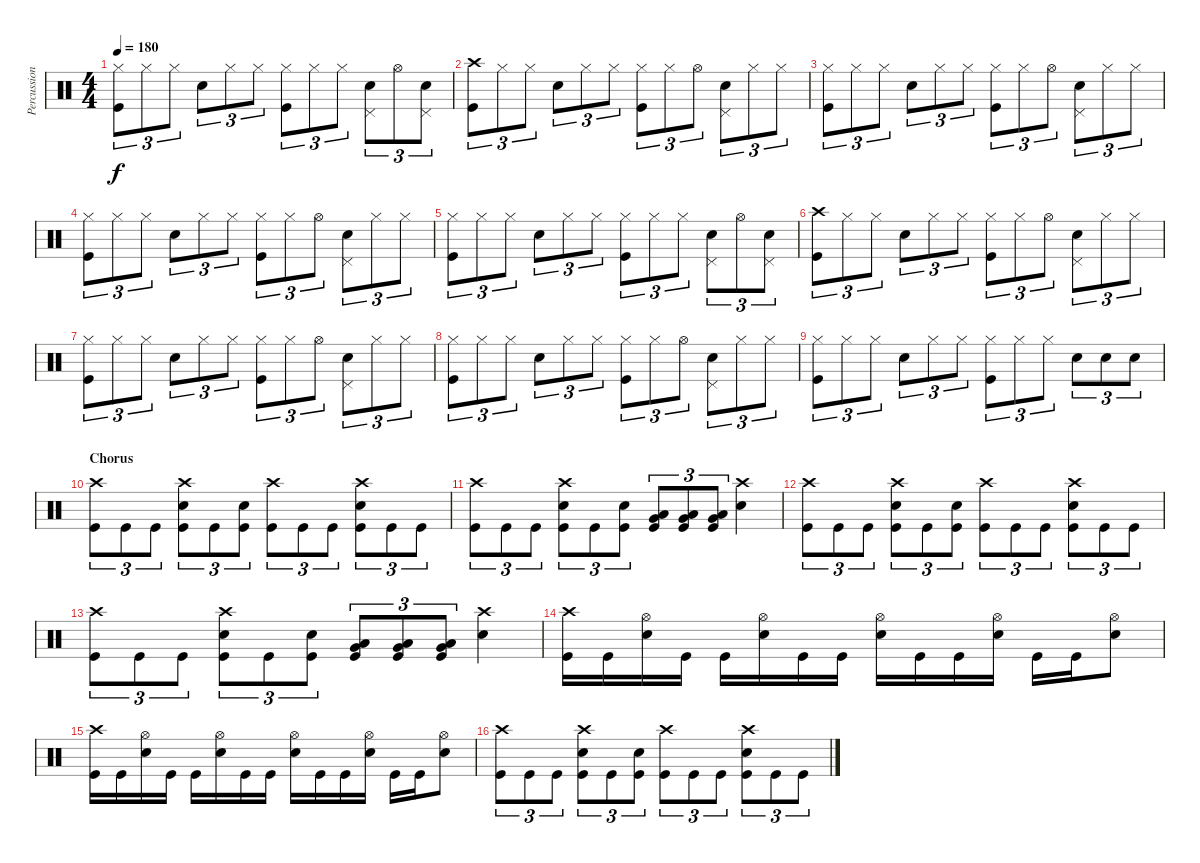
\track ("Percussions" "Percussion") {instrument percussion}
\staff {score}
\articulation defaults
\ts (4 4)
\tempo 180
\clef neutral
\ks c
("Hi-Hat (closed)" "Kick (hit)").8{tu (3 2) dy f} "Hi-Hat (closed)".8{tu (3 2)} "Hi-Hat (closed)".8{tu (3 2)} "Electric Snare (hit)".8{tu (3 2)} "Hi-Hat (closed)".8{tu (3 2)} "Hi-Hat (closed)".8{tu (3 2)} ("Hi-Hat (closed)" "Kick (hit)").8{tu (3 2)} "Hi-Hat (closed)".8{tu (3 2)} "Hi-Hat (closed)".8{tu (3 2)} ("Pedal Hi-Hat (hit)" "Electric Snare (hit)").8{tu (3 2)} "Hi-Hat (open)".8{tu (3 2)} ("Pedal Hi-Hat (hit)" "Electric Snare (hit)").8{tu (3 2)} |
("Crash high (hit)" "Kick (hit)").8{tu (3 2)} "Hi-Hat (closed)".8{tu (3 2)} "Hi-Hat (closed)".8{tu (3 2)} "Electric Snare (hit)".8{tu (3 2)} "Hi-Hat (closed)".8{tu (3 2)} "Hi-Hat (closed)".8{tu (3 2)} ("Hi-Hat (closed)" "Kick (hit)").8{tu (3 2)} "Hi-Hat (closed)".8{tu (3 2)} "Hi-Hat (open)".8{tu (3 2)} ("Pedal Hi-Hat (hit)" "Electric Snare (hit)").8{tu (3 2)} "Hi-Hat (closed)".8{tu (3 2)} "Hi-Hat (closed)".8{tu (3 2)} |
("Hi-Hat (closed)" "Kick (hit)").8{tu (3 2)} "Hi-Hat (closed)".8{tu (3 2)} "Hi-Hat (closed)".8{tu (3 2)} "Electric Snare (hit)".8{tu (3 2)} "Hi-Hat (closed)".8{tu (3 2)} "Hi-Hat (closed)".8{tu (3 2)} ("Hi-Hat (closed)" "Kick (hit)").8{tu (3 2)} "Hi-Hat (closed)".8{tu (3 2)} "Hi-Hat (open)".8{tu (3 2)} ("Pedal Hi-Hat (hit)" "Electric Snare (hit)").8{tu (3 2)} "Hi-Hat (closed)".8{tu (3 2)} "Hi-Hat (closed)".8{tu (3 2)} |
("Hi-Hat (closed)" "Kick (hit)").8{tu (3 2)} "Hi-Hat (closed)".8{tu (3 2)} "Hi-Hat (closed)".8{tu (3 2)} "Electric Snare (hit)".8{tu (3 2)} "Hi-Hat (closed)".8{tu (3 2)} "Hi-Hat (closed)".8{tu (3 2)} ("Hi-Hat (closed)" "Kick (hit)").8{tu (3 2)} "Hi-Hat (closed)".8{tu (3 2)} "Hi-Hat (open)".8{tu (3 2)} ("Pedal Hi-Hat (hit)" "Electric Snare (hit)").8{tu (3 2)} "Hi-Hat (closed)".8{tu (3 2)} "Hi-Hat (closed)".8{tu (3 2)} |
("Hi-Hat (closed)" "Kick (hit)").8{tu (3 2)} "Hi-Hat (closed)".8{tu (3 2)} "Hi-Hat (closed)".8{tu (3 2)} "Electric Snare (hit)".8{tu (3 2)} "Hi-Hat (closed)".8{tu (3 2)} "Hi-Hat (closed)".8{tu (3 2)} ("Hi-Hat (closed)" "Kick (hit)").8{tu (3 2)} "Hi-Hat (closed)".8{tu (3 2)} "Hi-Hat (closed)".8{tu (3 2)} ("Pedal Hi-Hat (hit)" "Electric Snare (hit)").8{tu (3 2)} "Hi-Hat (open)".8{tu (3 2)} ("Pedal Hi-Hat (hit)" "Electric Snare (hit)").8{tu (3 2)} |
("Crash high (hit)" "Kick (hit)").8{tu (3 2)} "Hi-Hat (closed)".8{tu (3 2)} "Hi-Hat (closed)".8{tu (3 2)} "Electric Snare (hit)".8{tu (3 2)} "Hi-Hat (closed)".8{tu (3 2)} "Hi-Hat (closed)".8{tu (3 2)} ("Hi-Hat (closed)" "Kick (hit)").8{tu (3 2)} "Hi-Hat (closed)".8{tu (3 2)} "Hi-Hat (open)".8{tu (3 2)} ("Pedal Hi-Hat (hit)" "Electric Snare (hit)").8{tu (3 2)} "Hi-Hat (closed)".8{tu (3 2)} "Hi-Hat (closed)".8{tu (3 2)} |
("Hi-Hat (closed)" "Kick (hit)").8{tu (3 2)} "Hi-Hat (closed)".8{tu (3 2)} "Hi-Hat (closed)".8{tu (3 2)} "Electric Snare (hit)".8{tu (3 2)} "Hi-Hat (closed)".8{tu (3 2)} "Hi-Hat (closed)".8{tu (3 2)} ("Hi-Hat (closed)" "Kick (hit)").8{tu (3 2)} "Hi-Hat (closed)".8{tu (3 2)} "Hi-Hat (open)".8{tu (3 2)} ("Pedal Hi-Hat (hit)" "Electric Snare (hit)").8{tu (3 2)} "Hi-Hat (closed)".8{tu (3 2)} "Hi-Hat (closed)".8{tu (3 2)} |
("Hi-Hat (closed)" "Kick (hit)").8{tu (3 2)} "Hi-Hat (closed)".8{tu (3 2)} "Hi-Hat (closed)".8{tu (3 2)} "Electric Snare (hit)".8{tu (3 2)} "Hi-Hat (closed)".8{tu (3 2)} "Hi-Hat (closed)".8{tu (3 2)} ("Hi-Hat (closed)" "Kick (hit)").8{tu (3 2)} "Hi-Hat (closed)".8{tu (3 2)} "Hi-Hat (open)".8{tu (3 2)} ("Pedal Hi-Hat (hit)" "Electric Snare (hit)").8{tu (3 2)} "Hi-Hat (closed)".8{tu (3 2)} "Hi-Hat (closed)".8{tu (3 2)} |
("Hi-Hat (closed)" "Kick (hit)").8{tu (3 2)} "Hi-Hat (closed)".8{tu (3 2)} "Hi-Hat (closed)".8{tu (3 2)} "Electric Snare (hit)".8{tu (3 2)} "Hi-Hat (closed)".8{tu (3 2)} "Hi-Hat (closed)".8{tu (3 2)} ("Hi-Hat (closed)" "Kick (hit)").8{tu (3 2)} "Hi-Hat (closed)".8{tu (3 2)} "Hi-Hat (closed)".8{tu (3 2)} "Electric Snare (hit)".8{tu (3 2)} "Electric Snare (hit)".8{tu (3 2)} "Electric Snare (hit)".8{tu (3 2)} |
\section ("" "Chorus")
("Crash high (hit)" "Kick (hit)").8{tu (3 2)} "Kick (hit)".8{tu (3 2)} "Kick (hit)".8{tu (3 2)} ("Crash high (hit)" "Electric Snare (hit)" "Kick (hit)").8{tu (3 2)} "Kick (hit)".8{tu (3 2)} ("Electric Snare (hit)" "Kick (hit)").8{tu (3 2)} ("Crash high (hit)" "Kick (hit)").8{tu (3 2)} "Kick (hit)".8{tu (3 2)} "Kick (hit)".8{tu (3 2)} ("Crash high (hit)" "Electric Snare (hit)" "Kick (hit)").8{tu (3 2)} "Kick (hit)".8{tu (3 2)} "Kick (hit)".8{tu (3 2)} |
("Crash high (hit)" "Kick (hit)").8{tu (3 2)} "Kick (hit)".8{tu (3 2)} "Kick (hit)".8{tu (3 2)} ("Crash high (hit)" "Electric Snare (hit)" "Kick (hit)").8{tu (3 2)} "Kick (hit)".8{tu (3 2)} ("Electric Snare (hit)" "Kick (hit)").8{tu (3 2)} ("Very Low Tom (hit)" "Low Floor Tom (hit)" "Kick (hit)").8{tu (3 2)} ("Very Low Tom (hit)" "Low Floor Tom (hit)" "Kick (hit)").8{tu (3 2)} ("Very Low Tom (hit)" "Low Floor Tom (hit)" "Kick (hit)").8{tu (3 2)} ("Crash high (hit)" "Electric Snare (hit)").4 |
("Crash high (hit)" "Kick (hit)").8{tu (3 2)} "Kick (hit)".8{tu (3 2)} "Kick (hit)".8{tu (3 2)} ("Crash high (hit)" "Electric Snare (hit)" "Kick (hit)").8{tu (3 2)} "Kick (hit)".8{tu (3 2)} ("Electric Snare (hit)" "Kick (hit)").8{tu (3 2)} ("Crash high (hit)" "Kick (hit)").8{tu (3 2)} "Kick (hit)".8{tu (3 2)} "Kick (hit)".8{tu (3 2)} ("Crash high (hit)" "Electric Snare (hit)" "Kick (hit)").8{tu (3 2)} "Kick (hit)".8{tu (3 2)} "Kick (hit)".8{tu (3 2)} |
("Crash high (hit)" "Kick (hit)").8{tu (3 2)} "Kick (hit)".8{tu (3 2)} "Kick (hit)".8{tu (3 2)} ("Crash high (hit)" "Electric Snare (hit)" "Kick (hit)").8{tu (3 2)} "Kick (hit)".8{tu (3 2)} ("Electric Snare (hit)" "Kick (hit)").8{tu (3 2)} ("Very Low Tom (hit)" "Low Floor Tom (hit)" "Kick (hit)").8{tu (3 2)} ("Very Low Tom (hit)" "Low Floor Tom (hit)" "Kick (hit)").8{tu (3 2)} ("Very Low Tom (hit)" "Low Floor Tom (hit)" "Kick (hit)").8{tu (3 2)} ("Crash high (hit)" "Electric Snare (hit)").4 |
("Crash high (hit)" "Kick (hit)").16 "Kick (hit)".16 ("Hi-Hat (open)" "Electric Snare (hit)").16 "Kick (hit)".16 "Kick (hit)".16 ("Hi-Hat (open)" "Electric Snare (hit)").16 "Kick (hit)".16 "Kick (hit)".16 ("Hi-Hat (open)" "Electric Snare (hit)").16 "Kick (hit)".16 "Kick (hit)".16 ("Hi-Hat (open)" "Electric Snare (hit)").16 "Kick (hit)".16 "Kick (hit)".16 ("Hi-Hat (open)" "Electric Snare (hit)").8 |
("Crash high (hit)" "Kick (hit)").16 "Kick (hit)".16 ("Hi-Hat (open)" "Electric Snare (hit)").16 "Kick (hit)".16 "Kick (hit)".16 ("Hi-Hat (open)" "Electric Snare (hit)").16 "Kick (hit)".16 "Kick (hit)".16 ("Hi-Hat (open)" "Electric Snare (hit)").16 "Kick (hit)".16 "Kick (hit)".16 ("Hi-Hat (open)" "Electric Snare (hit)").16 "Kick (hit)".16 "Kick (hit)".16 ("Hi-Hat (open)" "Electric Snare (hit)").8 |
("Crash high (hit)" "Kick (hit)").8{tu (3 2)} "Kick (hit)".8{tu (3 2)} "Kick (hit)".8{tu (3 2)} ("Crash high (hit)" "Electric Snare (hit)" "Kick (hit)").8{tu (3 2)} "Kick (hit)".8{tu (3 2)} ("Electric Snare (hit)" "Kick (hit)").8{tu (3 2)} ("Crash high (hit)" "Kick (hit)").8{tu (3 2)} "Kick (hit)".8{tu (3 2)} "Kick (hit)".8{tu (3 2)} ("Crash high (hit)" "Electric Snare (hit)" "Kick (hit)").8{tu (3 2)} "Kick (hit)".8{tu (3 2)} "Kick (hit)".8{tu (3 2)}
